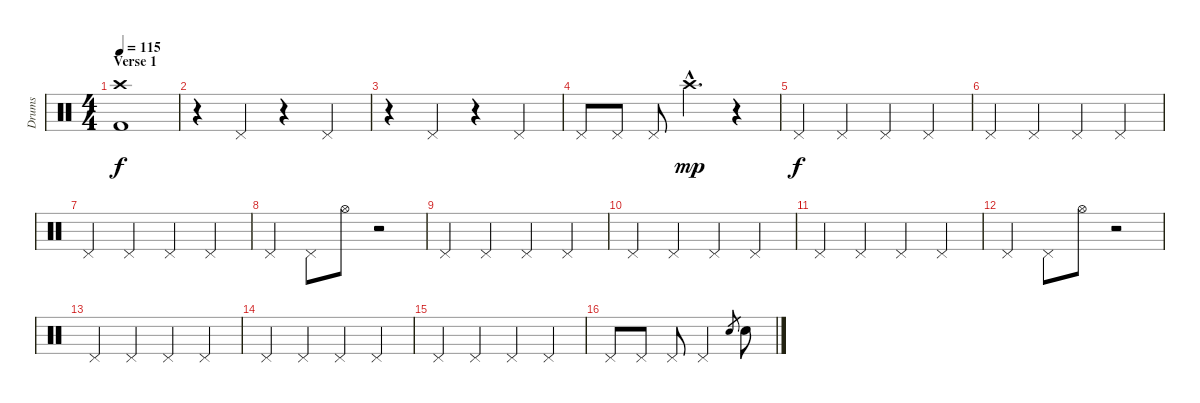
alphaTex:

\track ("Drums" "Drums") {instrument percussion}
\staff {score}
\articulation defaults
\ts (4 4)
\section ("" "Verse 1")
\tempo 115
\clef neutral
\ks c
("Crash high (hit)" "Kick (hit) 2").1{dy f} |
r.4 "Pedal Hi-Hat (hit)".4 r.4 "Pedal Hi-Hat (hit)".4 |
r.4 "Pedal Hi-Hat (hit)".4 r.4 "Pedal Hi-Hat (hit)".4 |
"Pedal Hi-Hat (hit)".8 "Pedal Hi-Hat (hit)".8 "Pedal Hi-Hat (hit)".8 "Crash high (hit)"{hac}.4{d dy mp} r.4 |
"Pedal Hi-Hat (hit)".4{dy f} "Pedal Hi-Hat (hit)".4 "Pedal Hi-Hat (hit)".4 "Pedal Hi-Hat (hit)".4 |
"Pedal Hi-Hat (hit)".4 "Pedal Hi-Hat (hit)".4 "Pedal Hi-Hat (hit)".4 "Pedal Hi-Hat (hit)".4 |
"Pedal Hi-Hat (hit)".4 "Pedal Hi-Hat (hit)".4 "Pedal Hi-Hat (hit)".4 "Pedal Hi-Hat (hit)".4 |
"Pedal Hi-Hat (hit)".4 "Pedal Hi-Hat (hit)".8 "Hi-Hat (open)".8 r.2 |
"Pedal Hi-Hat (hit)".4 "Pedal Hi-Hat (hit)".4 "Pedal Hi-Hat (hit)".4 "Pedal Hi-Hat (hit)".4 |
"Pedal Hi-Hat (hit)".4 "Pedal Hi-Hat (hit)".4 "Pedal Hi-Hat (hit)".4 "Pedal Hi-Hat (hit)".4 |
"Pedal Hi-Hat (hit)".4 "Pedal Hi-Hat (hit)".4 "Pedal Hi-Hat (hit)".4 "Pedal Hi-Hat (hit)".4 |
"Pedal Hi-Hat (hit)".4 "Pedal Hi-Hat (hit)".8 "Hi-Hat (open)".8 r.2 |
"Pedal Hi-Hat (hit)".4 "Pedal Hi-Hat (hit)".4 "Pedal Hi-Hat (hit)".4 "Pedal Hi-Hat (hit)".4 |
"Pedal Hi-Hat (hit)".4 "Pedal Hi-Hat (hit)".4 "Pedal Hi-Hat (hit)".4 "Pedal Hi-Hat (hit)".4 |
"Pedal Hi-Hat (hit)".4 "Pedal Hi-Hat (hit)".4 "Pedal Hi-Hat (hit)".4 "Pedal Hi-Hat (hit)".4 |
"Pedal Hi-Hat (hit)".8 "Pedal Hi-Hat (hit)".8 "Pedal Hi-Hat (hit)".8 "Pedal Hi-Hat (hit)".2 "Snare (hit) 2".8{gr} "Snare (hit) 2".8
